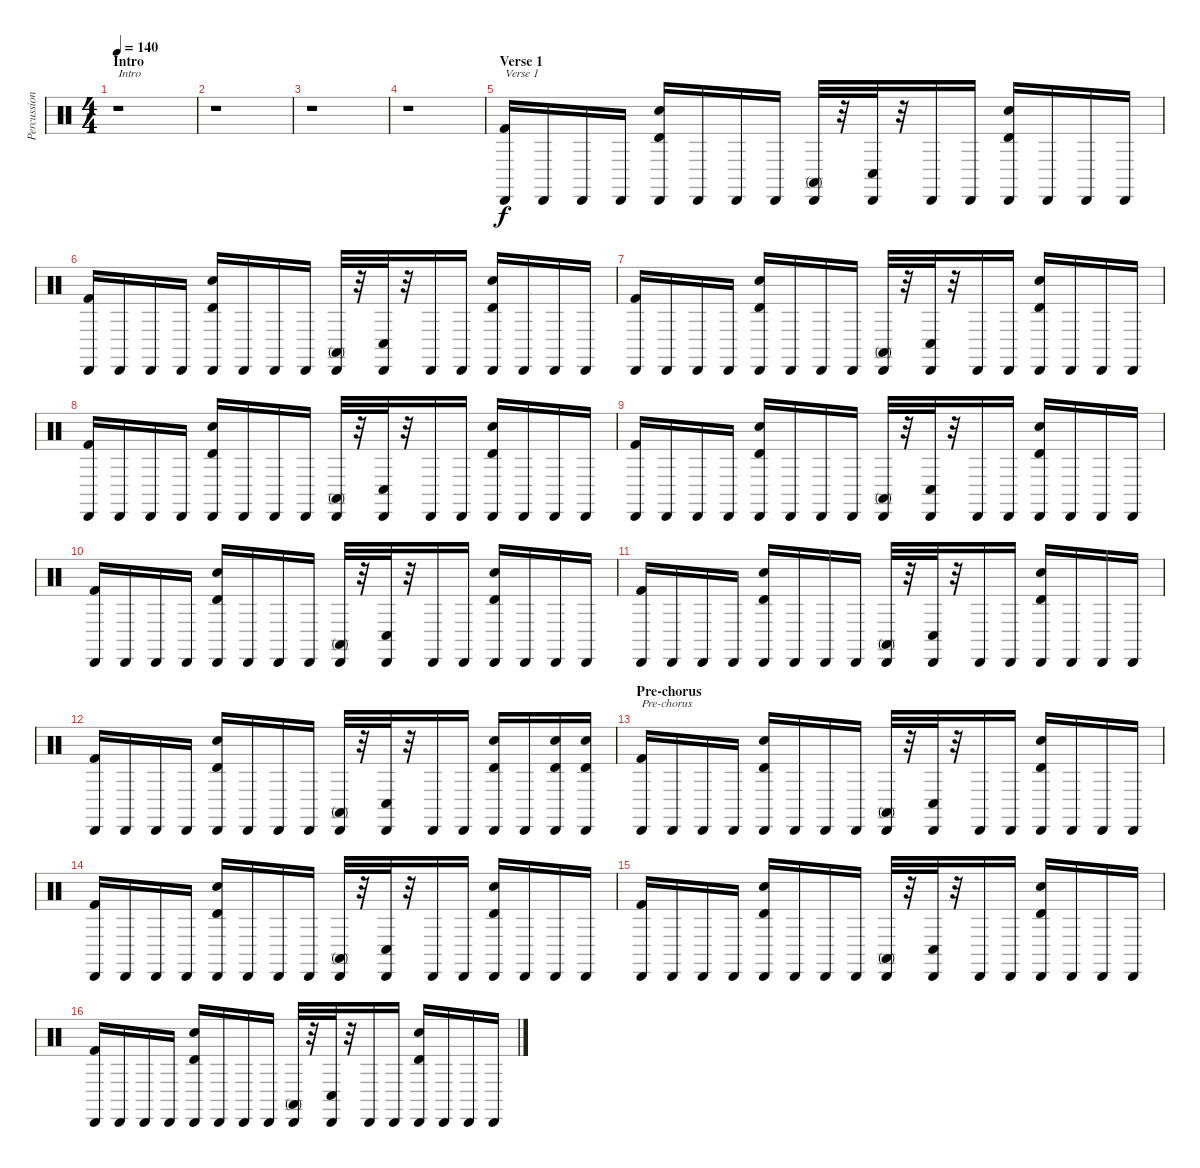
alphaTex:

\track ("Percussions" "Percussion") {instrument percussion}
\staff {score}
\articulation defaults
\ts (4 4)
\section ("" "Intro")
\tempo 140
\clef neutral
\ks c
r.1{txt "Intro" dy f} |
r.1 |
r.1 |
r.1 |
\section ("" "Verse 1")
("Kick (hit) 2" "Cabasa (hit)").16{txt "Verse 1"} "Cabasa (hit)".16 "Cabasa (hit)".16 "Cabasa (hit)".16 ("Timbale high (hit)" "Electric Snare (hit)" "Cabasa (hit)").16 "Cabasa (hit)".16 "Cabasa (hit)".16 "Cabasa (hit)".16 ("Conga high (mute)" "Cabasa (hit)").32 r.32 ("Conga low (hit)" "Cabasa (hit)").32 r.32 "Cabasa (hit)".16 "Cabasa (hit)".16 ("Electric Snare (hit)" "Timbale high (hit)" "Cabasa (hit)").16 "Cabasa (hit)".16 "Cabasa (hit)".16 "Cabasa (hit)".16 |
("Kick (hit) 2" "Cabasa (hit)").16 "Cabasa (hit)".16 "Cabasa (hit)".16 "Cabasa (hit)".16 ("Timbale high (hit)" "Electric Snare (hit)" "Cabasa (hit)").16 "Cabasa (hit)".16 "Cabasa (hit)".16 "Cabasa (hit)".16 ("Conga high (mute)" "Cabasa (hit)").32 r.32 ("Conga low (hit)" "Cabasa (hit)").32 r.32 "Cabasa (hit)".16 "Cabasa (hit)".16 ("Electric Snare (hit)" "Timbale high (hit)" "Cabasa (hit)").16 "Cabasa (hit)".16 "Cabasa (hit)".16 "Cabasa (hit)".16 |
("Kick (hit) 2" "Cabasa (hit)").16 "Cabasa (hit)".16 "Cabasa (hit)".16 "Cabasa (hit)".16 ("Timbale high (hit)" "Electric Snare (hit)" "Cabasa (hit)").16 "Cabasa (hit)".16 "Cabasa (hit)".16 "Cabasa (hit)".16 ("Conga high (mute)" "Cabasa (hit)").32 r.32 ("Conga low (hit)" "Cabasa (hit)").32 r.32 "Cabasa (hit)".16 "Cabasa (hit)".16 ("Electric Snare (hit)" "Timbale high (hit)" "Cabasa (hit)").16 "Cabasa (hit)".16 "Cabasa (hit)".16 "Cabasa (hit)".16 |
("Kick (hit) 2" "Cabasa (hit)").16 "Cabasa (hit)".16 "Cabasa (hit)".16 "Cabasa (hit)".16 ("Timbale high (hit)" "Electric Snare (hit)" "Cabasa (hit)").16 "Cabasa (hit)".16 "Cabasa (hit)".16 "Cabasa (hit)".16 ("Conga high (mute)" "Cabasa (hit)").32 r.32 ("Conga low (hit)" "Cabasa (hit)").32 r.32 "Cabasa (hit)".16 "Cabasa (hit)".16 ("Electric Snare (hit)" "Timbale high (hit)" "Cabasa (hit)").16 "Cabasa (hit)".16 "Cabasa (hit)".16 "Cabasa (hit)".16 |
("Kick (hit) 2" "Cabasa (hit)").16 "Cabasa (hit)".16 "Cabasa (hit)".16 "Cabasa (hit)".16 ("Timbale high (hit)" "Electric Snare (hit)" "Cabasa (hit)").16 "Cabasa (hit)".16 "Cabasa (hit)".16 "Cabasa (hit)".16 ("Conga high (mute)" "Cabasa (hit)").32 r.32 ("Conga low (hit)" "Cabasa (hit)").32 r.32 "Cabasa (hit)".16 "Cabasa (hit)".16 ("Electric Snare (hit)" "Timbale high (hit)" "Cabasa (hit)").16 "Cabasa (hit)".16 "Cabasa (hit)".16 "Cabasa (hit)".16 |
("Kick (hit) 2" "Cabasa (hit)").16 "Cabasa (hit)".16 "Cabasa (hit)".16 "Cabasa (hit)".16 ("Timbale high (hit)" "Electric Snare (hit)" "Cabasa (hit)").16 "Cabasa (hit)".16 "Cabasa (hit)".16 "Cabasa (hit)".16 ("Conga high (mute)" "Cabasa (hit)").32 r.32 ("Conga low (hit)" "Cabasa (hit)").32 r.32 "Cabasa (hit)".16 "Cabasa (hit)".16 ("Electric Snare (hit)" "Timbale high (hit)" "Cabasa (hit)").16 "Cabasa (hit)".16 "Cabasa (hit)".16 "Cabasa (hit)".16 |
("Kick (hit) 2" "Cabasa (hit)").16 "Cabasa (hit)".16 "Cabasa (hit)".16 "Cabasa (hit)".16 ("Timbale high (hit)" "Electric Snare (hit)" "Cabasa (hit)").16 "Cabasa (hit)".16 "Cabasa (hit)".16 "Cabasa (hit)".16 ("Conga high (mute)" "Cabasa (hit)").32 r.32 ("Conga low (hit)" "Cabasa (hit)").32 r.32 "Cabasa (hit)".16 "Cabasa (hit)".16 ("Electric Snare (hit)" "Timbale high (hit)" "Cabasa (hit)").16 "Cabasa (hit)".16 "Cabasa (hit)".16 "Cabasa (hit)".16 |
("Kick (hit) 2" "Cabasa (hit)").16 "Cabasa (hit)".16 "Cabasa (hit)".16 "Cabasa (hit)".16 ("Timbale high (hit)" "Electric Snare (hit)" "Cabasa (hit)").16 "Cabasa (hit)".16 "Cabasa (hit)".16 "Cabasa (hit)".16 ("Conga high (mute)" "Cabasa (hit)").32 r.32 ("Conga low (hit)" "Cabasa (hit)").32 r.32 "Cabasa (hit)".16 "Cabasa (hit)".16 ("Electric Snare (hit)" "Timbale high (hit)" "Cabasa (hit)").16 "Cabasa (hit)".16 ("Timbale high (hit)" "Electric Snare (hit)" "Cabasa (hit)").16 ("Timbale high (hit)" "Electric Snare (hit)" "Cabasa (hit)").16 |
\section ("" "Pre-chorus")
("Kick (hit) 2" "Cabasa (hit)").16{txt "Pre-chorus"} "Cabasa (hit)".16 "Cabasa (hit)".16 "Cabasa (hit)".16 ("Timbale high (hit)" "Electric Snare (hit)" "Cabasa (hit)").16 "Cabasa (hit)".16 "Cabasa (hit)".16 "Cabasa (hit)".16 ("Conga high (mute)" "Cabasa (hit)").32 r.32 ("Conga low (hit)" "Cabasa (hit)").32 r.32 "Cabasa (hit)".16 "Cabasa (hit)".16 ("Electric Snare (hit)" "Timbale high (hit)" "Cabasa (hit)").16 "Cabasa (hit)".16 "Cabasa (hit)".16 "Cabasa (hit)".16 |
("Kick (hit) 2" "Cabasa (hit)").16 "Cabasa (hit)".16 "Cabasa (hit)".16 "Cabasa (hit)".16 ("Timbale high (hit)" "Electric Snare (hit)" "Cabasa (hit)").16 "Cabasa (hit)".16 "Cabasa (hit)".16 "Cabasa (hit)".16 ("Conga high (mute)" "Cabasa (hit)").32 r.32 ("Conga low (hit)" "Cabasa (hit)").32 r.32 "Cabasa (hit)".16 "Cabasa (hit)".16 ("Electric Snare (hit)" "Timbale high (hit)" "Cabasa (hit)").16 "Cabasa (hit)".16 "Cabasa (hit)".16 "Cabasa (hit)".16 |
("Kick (hit) 2" "Cabasa (hit)").16 "Cabasa (hit)".16 "Cabasa (hit)".16 "Cabasa (hit)".16 ("Timbale high (hit)" "Electric Snare (hit)" "Cabasa (hit)").16 "Cabasa (hit)".16 "Cabasa (hit)".16 "Cabasa (hit)".16 ("Conga high (mute)" "Cabasa (hit)").32 r.32 ("Conga low (hit)" "Cabasa (hit)").32 r.32 "Cabasa (hit)".16 "Cabasa (hit)".16 ("Electric Snare (hit)" "Timbale high (hit)" "Cabasa (hit)").16 "Cabasa (hit)".16 "Cabasa (hit)".16 "Cabasa (hit)".16 |
("Kick (hit) 2" "Cabasa (hit)").16 "Cabasa (hit)".16 "Cabasa (hit)".16 "Cabasa (hit)".16 ("Timbale high (hit)" "Electric Snare (hit)" "Cabasa (hit)").16 "Cabasa (hit)".16 "Cabasa (hit)".16 "Cabasa (hit)".16 ("Conga high (mute)" "Cabasa (hit)").32 r.32 ("Conga low (hit)" "Cabasa (hit)").32 r.32 "Cabasa (hit)".16 "Cabasa (hit)".16 ("Electric Snare (hit)" "Timbale high (hit)" "Cabasa (hit)").16 "Cabasa (hit)".16 "Cabasa (hit)".16 "Cabasa (hit)".16
